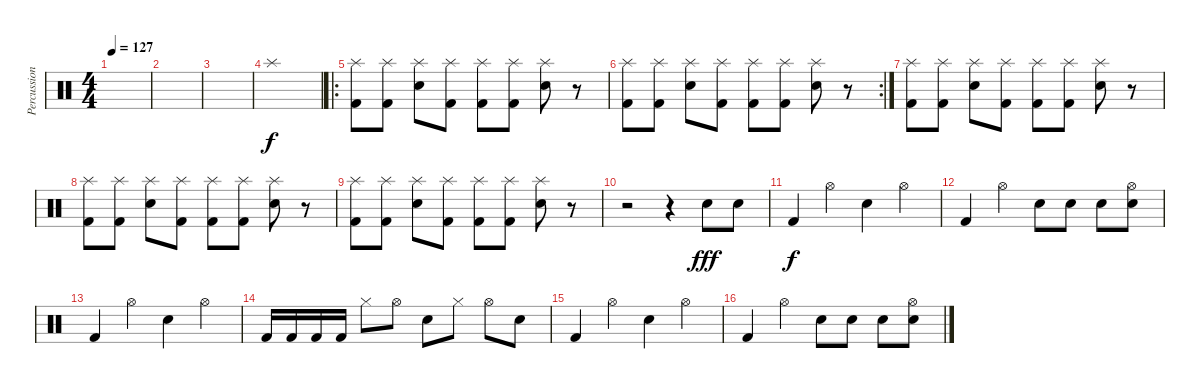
\track ("Percussions" "Percussion") {instrument percussion}
\staff {score}
\articulation defaults
\ts (4 4)
\tempo 127
\clef neutral
\ks c
|
|
|
"Splash (hit)".1{dy f} |
\ro
("Splash (hit)" "Kick (hit) 2").8 ("Splash (hit)" "Kick (hit) 2").8 ("Splash (hit)" "Electric Snare (hit)").8 ("Splash (hit)" "Kick (hit) 2").8 ("Splash (hit)" "Kick (hit) 2").8 ("Splash (hit)" "Kick (hit) 2").8 ("Splash (hit)" "Electric Snare (hit)").8 r.8 |
\rc 2
("Splash (hit)" "Kick (hit) 2").8 ("Splash (hit)" "Kick (hit) 2").8 ("Splash (hit)" "Electric Snare (hit)").8 ("Splash (hit)" "Kick (hit) 2").8 ("Splash (hit)" "Kick (hit) 2").8 ("Splash (hit)" "Kick (hit) 2").8 ("Splash (hit)" "Electric Snare (hit)").8 r.8 |
("Splash (hit)" "Kick (hit) 2").8 ("Splash (hit)" "Kick (hit) 2").8 ("Splash (hit)" "Electric Snare (hit)").8 ("Splash (hit)" "Kick (hit) 2").8 ("Splash (hit)" "Kick (hit) 2").8 ("Splash (hit)" "Kick (hit) 2").8 ("Splash (hit)" "Electric Snare (hit)").8 r.8 |
("Splash (hit)" "Kick (hit) 2").8 ("Splash (hit)" "Kick (hit) 2").8 ("Splash (hit)" "Electric Snare (hit)").8 ("Splash (hit)" "Kick (hit) 2").8 ("Splash (hit)" "Kick (hit) 2").8 ("Splash (hit)" "Kick (hit) 2").8 ("Splash (hit)" "Electric Snare (hit)").8 r.8 |
("Splash (hit)" "Kick (hit) 2").8 ("Splash (hit)" "Kick (hit) 2").8 ("Splash (hit)" "Electric Snare (hit)").8 ("Splash (hit)" "Kick (hit) 2").8 ("Splash (hit)" "Kick (hit) 2").8 ("Splash (hit)" "Kick (hit) 2").8 ("Splash (hit)" "Electric Snare (hit)").8 r.8 |
r.2 r.4 "Snare (hit) 2".8{dy fff} "Electric Snare (hit)".8 |
"Kick (hit) 2".4{dy f} "Hi-Hat (open)".4 "Electric Snare (hit)".4 "Hi-Hat (open)".4 |
"Kick (hit) 2".4 "Hi-Hat (open)".4 "Electric Snare (hit)".8 "Electric Snare (hit)".8 "Electric Snare (hit)".8 ("Hi-Hat (open)" "Electric Snare (hit)").8 |
"Kick (hit) 2".4 "Hi-Hat (open)".4 "Electric Snare (hit)".4 "Hi-Hat (open)".4 |
"Kick (hit) 2".16 "Kick (hit) 2".16 "Kick (hit) 2".16 "Kick (hit) 2".16 "Hi-Hat (closed)".8 "Hi-Hat (open)".8 "Electric Snare (hit)".8 "Hi-Hat (closed)".8 "Hi-Hat (open)".8 "Electric Snare (hit)".8 |
"Kick (hit) 2".4 "Hi-Hat (open)".4 "Electric Snare (hit)".4 "Hi-Hat (open)".4 |
"Kick (hit) 2".4 "Hi-Hat (open)".4 "Electric Snare (hit)".8 "Electric Snare (hit)".8 "Electric Snare (hit)".8 ("Hi-Hat (open)" "Electric Snare (hit)").8
